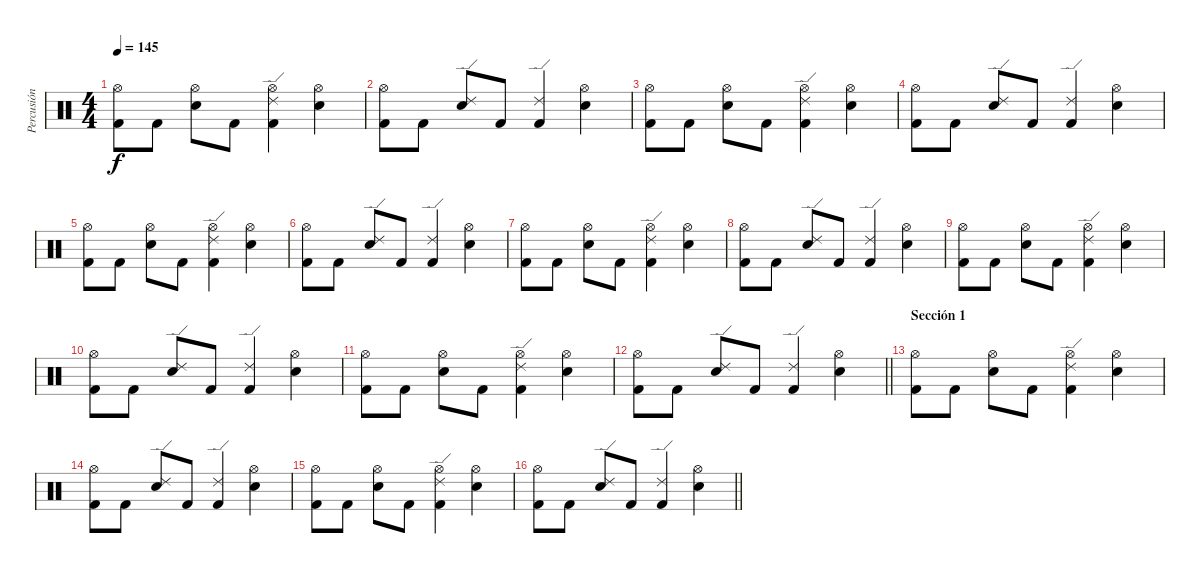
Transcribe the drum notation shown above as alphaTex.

\track ("Percusión" "Percusión") {instrument percussion}
\staff {score}
\articulation defaults
\ts (4 4)
\tempo 145
\clef neutral
\ks c
("Hi-Hat (open)" "Kick (hit) 2").8{dy f} "Kick (hit) 2".8 ("Hi-Hat (open)" "Snare (hit) 2").8 "Kick (hit) 2".8 ("Hi-Hat (open)" "Ride (edge) 2" "Kick (hit) 2").4 ("Hi-Hat (open)" "Snare (hit) 2").4 |
("Hi-Hat (open)" "Kick (hit) 2").8 "Kick (hit) 2".8 ("Ride (edge) 2" "Snare (hit) 2").8 "Kick (hit) 2".8 ("Ride (edge) 2" "Kick (hit) 2").4 ("Hi-Hat (open)" "Snare (hit) 2").4 |
("Hi-Hat (open)" "Kick (hit) 2").8 "Kick (hit) 2".8 ("Hi-Hat (open)" "Snare (hit) 2").8 "Kick (hit) 2".8 ("Hi-Hat (open)" "Ride (edge) 2" "Kick (hit) 2").4 ("Hi-Hat (open)" "Snare (hit) 2").4 |
("Hi-Hat (open)" "Kick (hit) 2").8 "Kick (hit) 2".8 ("Ride (edge) 2" "Snare (hit) 2").8 "Kick (hit) 2".8 ("Ride (edge) 2" "Kick (hit) 2").4 ("Hi-Hat (open)" "Snare (hit) 2").4 |
("Hi-Hat (open)" "Kick (hit) 2").8 "Kick (hit) 2".8 ("Hi-Hat (open)" "Snare (hit) 2").8 "Kick (hit) 2".8 ("Hi-Hat (open)" "Ride (edge) 2" "Kick (hit) 2").4 ("Hi-Hat (open)" "Snare (hit) 2").4 |
("Hi-Hat (open)" "Kick (hit) 2").8 "Kick (hit) 2".8 ("Ride (edge) 2" "Snare (hit) 2").8 "Kick (hit) 2".8 ("Ride (edge) 2" "Kick (hit) 2").4 ("Hi-Hat (open)" "Snare (hit) 2").4 |
("Hi-Hat (open)" "Kick (hit) 2").8 "Kick (hit) 2".8 ("Hi-Hat (open)" "Snare (hit) 2").8 "Kick (hit) 2".8 ("Hi-Hat (open)" "Ride (edge) 2" "Kick (hit) 2").4 ("Hi-Hat (open)" "Snare (hit) 2").4 |
("Hi-Hat (open)" "Kick (hit) 2").8 "Kick (hit) 2".8 ("Ride (edge) 2" "Snare (hit) 2").8 "Kick (hit) 2".8 ("Ride (edge) 2" "Kick (hit) 2").4 ("Hi-Hat (open)" "Snare (hit) 2").4 |
("Hi-Hat (open)" "Kick (hit) 2").8 "Kick (hit) 2".8 ("Hi-Hat (open)" "Snare (hit) 2").8 "Kick (hit) 2".8 ("Hi-Hat (open)" "Ride (edge) 2" "Kick (hit) 2").4 ("Hi-Hat (open)" "Snare (hit) 2").4 |
("Hi-Hat (open)" "Kick (hit) 2").8 "Kick (hit) 2".8 ("Ride (edge) 2" "Snare (hit) 2").8 "Kick (hit) 2".8 ("Ride (edge) 2" "Kick (hit) 2").4 ("Hi-Hat (open)" "Snare (hit) 2").4 |
("Hi-Hat (open)" "Kick (hit) 2").8 "Kick (hit) 2".8 ("Hi-Hat (open)" "Snare (hit) 2").8 "Kick (hit) 2".8 ("Hi-Hat (open)" "Ride (edge) 2" "Kick (hit) 2").4 ("Hi-Hat (open)" "Snare (hit) 2").4 |
\barLineRight lightlight
("Hi-Hat (open)" "Kick (hit) 2").8 "Kick (hit) 2".8 ("Ride (edge) 2" "Snare (hit) 2").8 "Kick (hit) 2".8 ("Ride (edge) 2" "Kick (hit) 2").4 ("Hi-Hat (open)" "Snare (hit) 2").4 |
\section ("" "Sección 1")
("Hi-Hat (open)" "Kick (hit) 2").8 "Kick (hit) 2".8 ("Hi-Hat (open)" "Snare (hit) 2").8 "Kick (hit) 2".8 ("Hi-Hat (open)" "Ride (edge) 2" "Kick (hit) 2").4 ("Hi-Hat (open)" "Snare (hit) 2").4 |
("Hi-Hat (open)" "Kick (hit) 2").8 "Kick (hit) 2".8 ("Ride (edge) 2" "Snare (hit) 2").8 "Kick (hit) 2".8 ("Ride (edge) 2" "Kick (hit) 2").4 ("Hi-Hat (open)" "Snare (hit) 2").4 |
("Hi-Hat (open)" "Kick (hit) 2").8 "Kick (hit) 2".8 ("Hi-Hat (open)" "Snare (hit) 2").8 "Kick (hit) 2".8 ("Hi-Hat (open)" "Ride (edge) 2" "Kick (hit) 2").4 ("Hi-Hat (open)" "Snare (hit) 2").4 |
\barLineRight lightlight
("Hi-Hat (open)" "Kick (hit) 2").8 "Kick (hit) 2".8 ("Ride (edge) 2" "Snare (hit) 2").8 "Kick (hit) 2".8 ("Ride (edge) 2" "Kick (hit) 2").4 ("Hi-Hat (open)" "Snare (hit) 2").4
